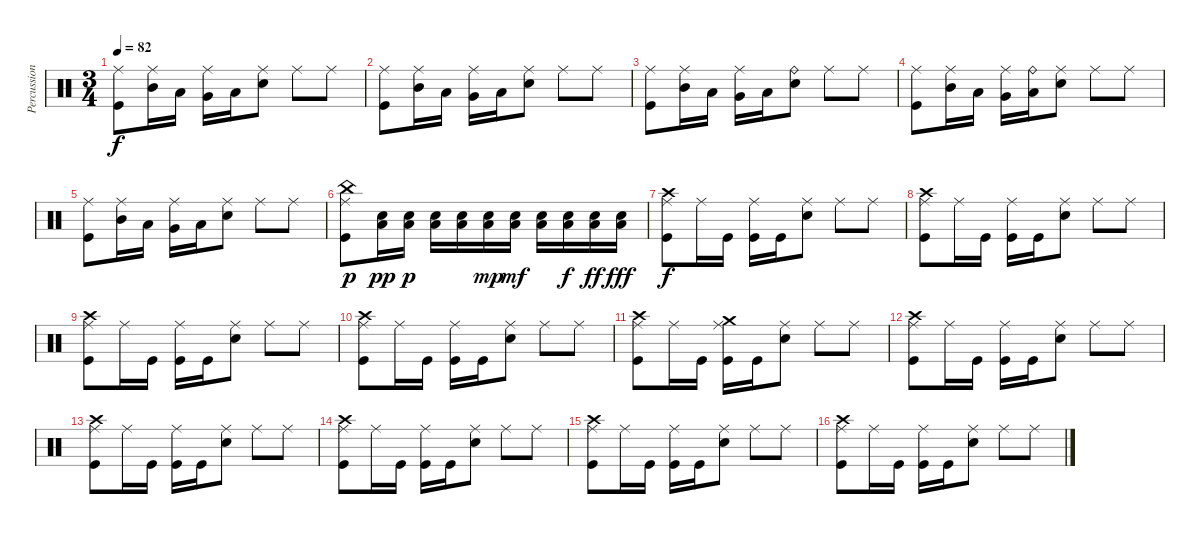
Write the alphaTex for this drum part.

\track ("Percussions" "Percussion") {instrument percussion}
\staff {score}
\articulation defaults
\ts (3 4)
\tempo 82
\clef neutral
\ks c
("Ride (middle)" "Kick (hit)").8{dy f} ("Ride (middle)" "Mid Tom (hit)").16 "Low Tom (hit)".16 ("Ride (middle)" "Very Low Tom (hit)").16 "Low Floor Tom (hit)".16 ("Ride (middle)" "Electric Snare (hit)").8 "Ride (middle)".8 "Ride (middle)".8 |
("Ride (middle)" "Kick (hit)").8 ("Ride (middle)" "Mid Tom (hit)").16 "Low Tom (hit)".16 ("Ride (middle)" "Very Low Tom (hit)").16 "Low Floor Tom (hit)".16 ("Ride (middle)" "Electric Snare (hit)").8 "Ride (middle)".8 "Ride (middle)".8 |
("Ride (middle)" "Kick (hit)").8 ("Ride (middle)" "Mid Tom (hit)").16 "Low Tom (hit)".16 ("Ride (middle)" "Very Low Tom (hit)").16 "Low Floor Tom (hit)".16 ("Ride (bell)" "Electric Snare (hit)").8 "Ride (middle)".8 "Ride (middle)".8 |
("Ride (middle)" "Kick (hit)").8 ("Ride (middle)" "Mid Tom (hit)").16 "Low Tom (hit)".16 ("Ride (middle)" "Very Low Tom (hit)").16 ("Ride (bell)" "Low Floor Tom (hit)").16 ("Ride (middle)" "Electric Snare (hit)").8 "Ride (middle)".8 "Ride (middle)".8 |
("Ride (middle)" "Kick (hit)").8 ("Ride (middle)" "Mid Tom (hit)").16 "Low Tom (hit)".16 ("Ride (middle)" "Very Low Tom (hit)").16 "Low Floor Tom (hit)".16 ("Ride (middle)" "Electric Snare (hit)").8 "Ride (middle)".8 "Ride (middle)".8 |
("Ride (middle)" "China (hit)" "Kick (hit)").8{dy p} ("Electric Snare (hit)" "Low Floor Tom (hit)").16{dy pp} ("Electric Snare (hit)" "Low Floor Tom (hit)").16{dy p} ("Electric Snare (hit)" "Low Floor Tom (hit)").16 ("Electric Snare (hit)" "Low Floor Tom (hit)").16 ("Electric Snare (hit)" "Low Floor Tom (hit)").16{dy mp} ("Electric Snare (hit)" "Low Floor Tom (hit)").16{dy mf} ("Electric Snare (hit)" "Low Floor Tom (hit)").16 ("Electric Snare (hit)" "Low Floor Tom (hit)").16{dy f} ("Electric Snare (hit)" "Low Floor Tom (hit)").16{dy ff} ("Electric Snare (hit)" "Low Floor Tom (hit)").16{dy fff} |
("Ride (middle)" "Crash high (hit)" "Kick (hit)").8{dy f} "Ride (middle)".16 "Kick (hit)".16 ("Ride (middle)" "Kick (hit)").16 "Kick (hit)".16 ("Ride (middle)" "Electric Snare (hit)").8 "Ride (middle)".8 "Ride (middle)".8 |
("Ride (middle)" "Crash high (hit)" "Kick (hit)").8 "Ride (middle)".16 "Kick (hit)".16 ("Ride (middle)" "Kick (hit)").16 "Kick (hit)".16 ("Ride (middle)" "Electric Snare (hit)").8 "Ride (middle)".8 "Ride (middle)".8 |
("Ride (middle)" "Crash high (hit)" "Kick (hit)").8 "Ride (middle)".16 "Kick (hit)".16 ("Ride (middle)" "Kick (hit)").16 "Kick (hit)".16 ("Ride (middle)" "Electric Snare (hit)").8 "Ride (middle)".8 "Ride (middle)".8 |
("Ride (middle)" "Crash high (hit)" "Kick (hit)").8 "Ride (middle)".16 "Kick (hit)".16 ("Ride (middle)" "Kick (hit)").16 "Kick (hit)".16 ("Ride (middle)" "Electric Snare (hit)").8 "Ride (middle)".8 "Ride (middle)".8 |
("Ride (middle)" "Crash high (hit)" "Kick (hit)").8 "Ride (middle)".16 "Kick (hit)".16 ("Ride (middle)" "Crash medium (hit)" "Kick (hit)").16 "Kick (hit)".16 ("Ride (middle)" "Electric Snare (hit)").8 "Ride (middle)".8 "Ride (middle)".8 |
("Ride (middle)" "Crash high (hit)" "Kick (hit)").8 "Ride (middle)".16 "Kick (hit)".16 ("Ride (middle)" "Kick (hit)").16 "Kick (hit)".16 ("Ride (middle)" "Electric Snare (hit)").8 "Ride (middle)".8 "Ride (middle)".8 |
("Ride (middle)" "Crash high (hit)" "Kick (hit)").8 "Ride (middle)".16 "Kick (hit)".16 ("Ride (middle)" "Kick (hit)").16 "Kick (hit)".16 ("Ride (middle)" "Electric Snare (hit)").8 "Ride (middle)".8 "Ride (middle)".8 |
("Ride (middle)" "Crash high (hit)" "Kick (hit)").8 "Ride (middle)".16 "Kick (hit)".16 ("Ride (middle)" "Kick (hit)").16 "Kick (hit)".16 ("Ride (middle)" "Electric Snare (hit)").8 "Ride (middle)".8 "Ride (middle)".8 |
("Ride (middle)" "Crash high (hit)" "Kick (hit)").8 "Ride (middle)".16 "Kick (hit)".16 ("Ride (middle)" "Kick (hit)").16 "Kick (hit)".16 ("Ride (middle)" "Electric Snare (hit)").8 "Ride (middle)".8 "Ride (middle)".8 |
("Ride (middle)" "Crash high (hit)" "Kick (hit)").8 "Ride (middle)".16 "Kick (hit)".16 ("Ride (middle)" "Kick (hit)").16 "Kick (hit)".16 ("Ride (middle)" "Electric Snare (hit)").8 "Ride (middle)".8 "Ride (middle)".8
